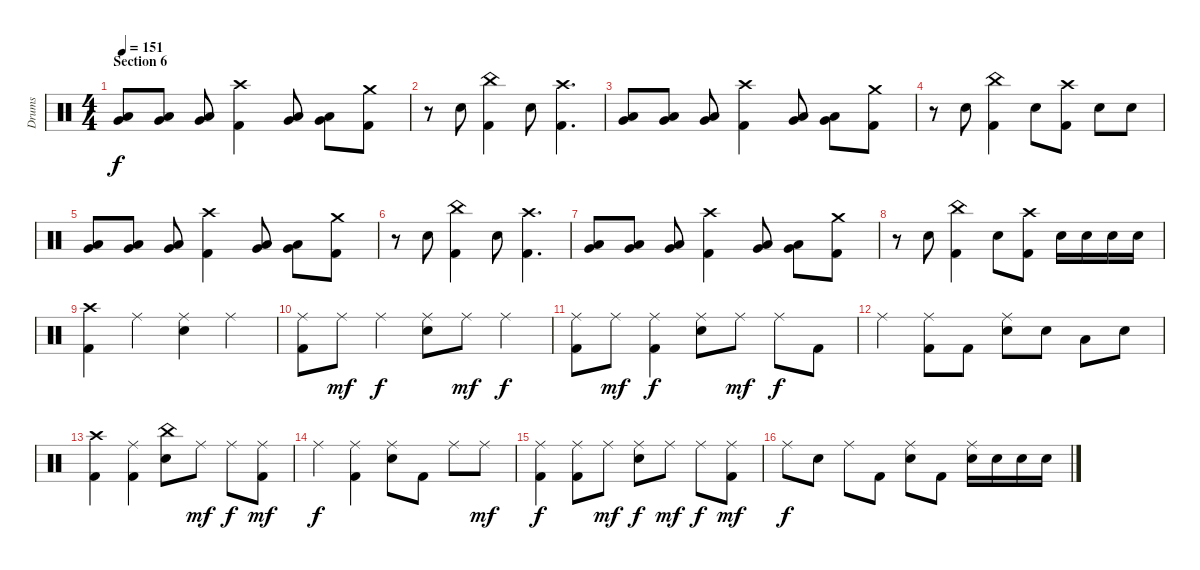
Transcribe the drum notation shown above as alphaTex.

\track ("Drums" "Drums") {instrument percussion}
\staff {score}
\articulation defaults
\ts (4 4)
\section ("" "Section 6")
\tempo 151
\clef neutral
\ks c
("Very Low Tom (hit)" "Low Floor Tom (hit)").8{dy f} ("Very Low Tom (hit)" "Low Floor Tom (hit)").8 ("Very Low Tom (hit)" "Low Floor Tom (hit)").8 ("Crash high (hit)" "Kick (hit) 2").4 ("Very Low Tom (hit)" "Low Floor Tom (hit)").8 ("Very Low Tom (hit)" "Low Floor Tom (hit)").8 ("Crash medium (hit)" "Kick (hit) 2").8 |
r.8 "Snare (hit) 2".8 ("China (hit)" "Kick (hit) 2").4 "Snare (hit) 2".8 ("Crash high (hit)" "Kick (hit) 2").4{d} |
("Very Low Tom (hit)" "Low Floor Tom (hit)").8 ("Very Low Tom (hit)" "Low Floor Tom (hit)").8 ("Very Low Tom (hit)" "Low Floor Tom (hit)").8 ("Crash high (hit)" "Kick (hit) 2").4 ("Very Low Tom (hit)" "Low Floor Tom (hit)").8 ("Very Low Tom (hit)" "Low Floor Tom (hit)").8 ("Crash medium (hit)" "Kick (hit) 2").8 |
r.8 "Snare (hit) 2".8 ("China (hit)" "Kick (hit) 2").4 "Snare (hit) 2".8 ("Crash high (hit)" "Kick (hit) 2").8 "Snare (hit) 2".8 "Snare (hit) 2".8 |
("Very Low Tom (hit)" "Low Floor Tom (hit)").8 ("Very Low Tom (hit)" "Low Floor Tom (hit)").8 ("Very Low Tom (hit)" "Low Floor Tom (hit)").8 ("Crash high (hit)" "Kick (hit) 2").4 ("Very Low Tom (hit)" "Low Floor Tom (hit)").8 ("Very Low Tom (hit)" "Low Floor Tom (hit)").8 ("Crash medium (hit)" "Kick (hit) 2").8 |
r.8 "Snare (hit) 2".8 ("China (hit)" "Kick (hit) 2").4 "Snare (hit) 2".8 ("Crash high (hit)" "Kick (hit) 2").4{d} |
("Very Low Tom (hit)" "Low Floor Tom (hit)").8 ("Very Low Tom (hit)" "Low Floor Tom (hit)").8 ("Very Low Tom (hit)" "Low Floor Tom (hit)").8 ("Crash high (hit)" "Kick (hit) 2").4 ("Very Low Tom (hit)" "Low Floor Tom (hit)").8 ("Very Low Tom (hit)" "Low Floor Tom (hit)").8 ("Crash medium (hit)" "Kick (hit) 2").8 |
r.8 "Snare (hit) 2".8 ("China (hit)" "Kick (hit) 2").4 "Snare (hit) 2".8 ("Crash high (hit)" "Kick (hit) 2").8 "Snare (hit) 2".16 "Snare (hit) 2".16 "Snare (hit) 2".16 "Snare (hit) 2".16 |
("Crash high (hit)" "Kick (hit) 2").4 "Ride (middle)".4 ("Ride (middle)" "Snare (hit) 2").4 "Ride (middle)".4 |
("Ride (middle)" "Kick (hit) 2").8 "Ride (middle)".8{dy mf} "Ride (middle)".4{dy f} ("Ride (middle)" "Snare (hit) 2").8 "Ride (middle)".8{dy mf} "Ride (middle)".4{dy f} |
("Ride (middle)" "Kick (hit) 2").8 "Ride (middle)".8{dy mf} ("Ride (middle)" "Kick (hit) 2").4{dy f} ("Ride (middle)" "Snare (hit) 2").8 "Ride (middle)".8{dy mf} "Ride (middle)".8{dy f} "Kick (hit) 2".8 |
"Ride (middle)".4 ("Ride (middle)" "Kick (hit) 2").8 "Kick (hit) 2".8 ("Ride (middle)" "Snare (hit) 2").8 "Snare (hit) 2".8 "Low Tom (hit)".8 "Snare (hit) 2".8 |
("Crash high (hit)" "Kick (hit) 2").4 ("Ride (middle)" "Kick (hit) 2").4 ("China (hit)" "Snare (hit) 2").8 "Ride (middle)".8{dy mf} "Ride (middle)".8{dy f} ("Ride (middle)" "Kick (hit) 2").8{dy mf} |
"Ride (middle)".4{dy f} ("Ride (middle)" "Kick (hit) 2").4 ("Ride (middle)" "Snare (hit) 2").8 "Kick (hit) 2".8 "Ride (middle)".8 "Ride (middle)".8{dy mf} |
("Ride (middle)" "Kick (hit) 2").4{dy f} ("Ride (middle)" "Kick (hit) 2").8 "Ride (middle)".8{dy mf} ("Ride (middle)" "Snare (hit) 2").8{dy f} "Ride (middle)".8{dy mf} "Ride (middle)".8{dy f} ("Ride (middle)" "Kick (hit) 2").8{dy mf} |
"Ride (middle)".8{dy f} "Snare (hit) 2".8 "Ride (middle)".8 "Kick (hit) 2".8 ("Ride (middle)" "Snare (hit) 2").8 "Kick (hit) 2".8 ("Ride (middle)" "Snare (hit) 2").16 "Snare (hit) 2".16 "Snare (hit) 2".16 "Snare (hit) 2".16
